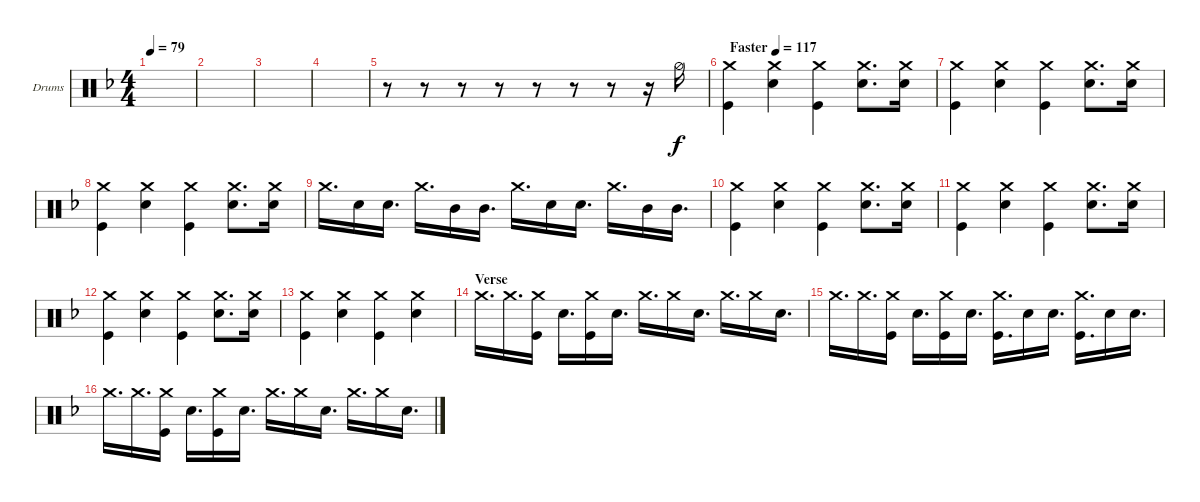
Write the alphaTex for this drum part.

\defaultSystemsLayout 4
\bracketExtendMode groupsimilarinstruments
\firstSystemTrackNameOrientation horizontal
\otherSystemsTrackNameOrientation horizontal
\track ("Drumkit" "Drums") {instrument percussion}
\staff {score}
\articulation defaults
\ts (4 4)
\tempo 79
\clef neutral
\ks f
|
|
|
|
r.8 r.8 r.8 r.8 r.8 r.8 r.8 r.16 "Hi-Hat (half)".16 |
\tempo (117 "Faster")
("Kick (hit)" "Crash medium (hit)").4 ("Crash medium (hit)" "Snare (hit) 2").4 ("Crash medium (hit)" "Kick (hit)").4 ("Crash medium (hit)" "Snare (hit) 2").8{d} ("Crash medium (hit)" "Snare (hit) 2").16 |
("Kick (hit)" "Crash medium (hit)").4 ("Crash medium (hit)" "Snare (hit) 2").4 ("Crash medium (hit)" "Kick (hit)").4 ("Crash medium (hit)" "Snare (hit) 2").8{d} ("Crash medium (hit)" "Snare (hit) 2").16 |
("Kick (hit)" "Crash medium (hit)").4 ("Crash medium (hit)" "Snare (hit) 2").4 ("Crash medium (hit)" "Kick (hit)").4 ("Crash medium (hit)" "Snare (hit) 2").8{d} ("Crash medium (hit)" "Snare (hit) 2").16 |
"Crash medium (hit)".16{d} "Snare (hit) 2".16 "Snare (hit) 2".16{d} "Crash medium (hit)".16{d} "Mid Tom (hit)".16 "Mid Tom (hit)".16{d} "Crash medium (hit)".16{d} "Snare (hit) 2".16 "Snare (hit) 2".16{d} "Crash medium (hit)".16{d} "Mid Tom (hit)".16 "Mid Tom (hit)".16{d} |
("Kick (hit)" "Crash medium (hit)").4 ("Crash medium (hit)" "Snare (hit) 2").4 ("Crash medium (hit)" "Kick (hit)").4 ("Crash medium (hit)" "Snare (hit) 2").8{d} ("Crash medium (hit)" "Snare (hit) 2").16 |
("Kick (hit)" "Crash medium (hit)").4 ("Crash medium (hit)" "Snare (hit) 2").4 ("Crash medium (hit)" "Kick (hit)").4 ("Crash medium (hit)" "Snare (hit) 2").8{d} ("Crash medium (hit)" "Snare (hit) 2").16 |
("Kick (hit)" "Crash medium (hit)").4 ("Crash medium (hit)" "Snare (hit) 2").4 ("Crash medium (hit)" "Kick (hit)").4 ("Crash medium (hit)" "Snare (hit) 2").8{d} ("Crash medium (hit)" "Snare (hit) 2").16 |
("Kick (hit)" "Crash medium (hit)").4 ("Crash medium (hit)" "Snare (hit) 2").4 ("Crash medium (hit)" "Kick (hit)").4 ("Crash medium (hit)" "Snare (hit) 2").4 |
\section ("" "Verse")
"Crash medium (hit)".16{d} "Crash medium (hit)".16{d} ("Crash medium (hit)" "Kick (hit)").16 "Snare (hit) 2".16{d} ("Crash medium (hit)" "Kick (hit)").16 "Snare (hit) 2".16{d} "Crash medium (hit)".16{d} "Crash medium (hit)".16 "Snare (hit) 2".16{d} "Crash medium (hit)".16{d} "Crash medium (hit)".16 "Snare (hit) 2".16{d} |
"Crash medium (hit)".16{d} "Crash medium (hit)".16{d} ("Crash medium (hit)" "Kick (hit)").16 "Snare (hit) 2".16{d} ("Crash medium (hit)" "Kick (hit)").16 "Snare (hit) 2".16{d} ("Crash medium (hit)" "Kick (hit)").16{d} "Snare (hit) 2".16 "Snare (hit) 2".16{d} ("Crash medium (hit)" "Kick (hit)").16{d} "Snare (hit) 2".16 "Snare (hit) 2".16{d} |
"Crash medium (hit)".16{d} "Crash medium (hit)".16{d} ("Crash medium (hit)" "Kick (hit)").16 "Snare (hit) 2".16{d} ("Crash medium (hit)" "Kick (hit)").16 "Snare (hit) 2".16{d} "Crash medium (hit)".16{d} "Crash medium (hit)".16 "Snare (hit) 2".16{d} "Crash medium (hit)".16{d} "Crash medium (hit)".16 "Snare (hit) 2".16{d}
